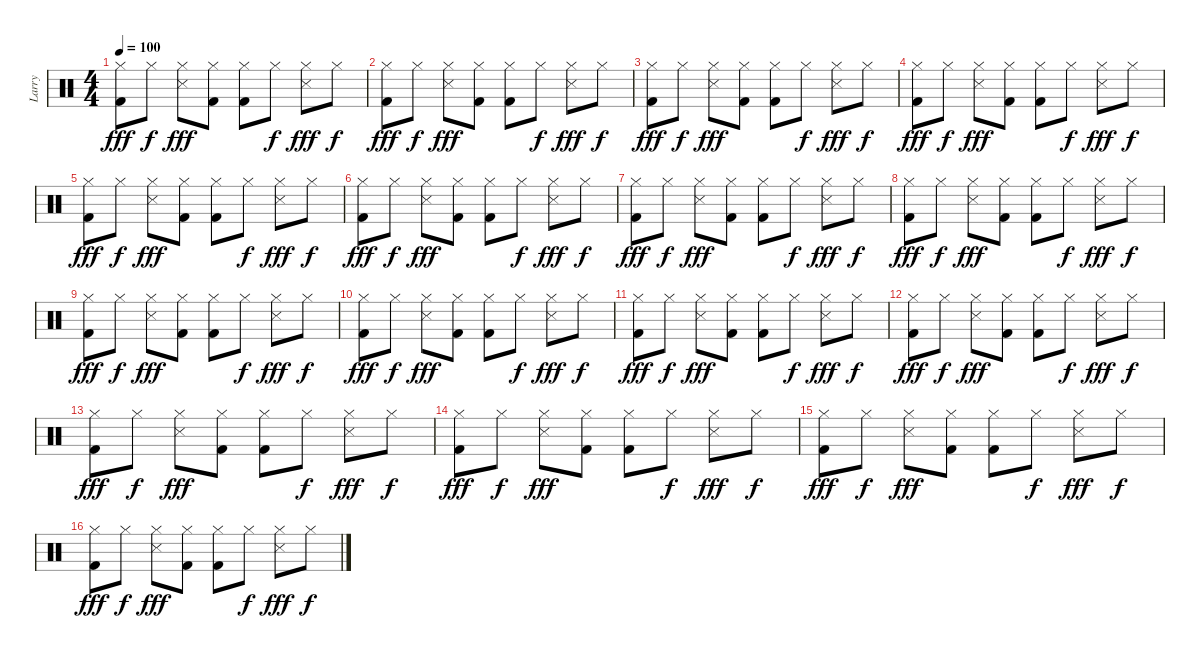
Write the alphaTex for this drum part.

\track ("Larry" "Larry") {instrument percussion}
\staff {score}
\articulation defaults
\ts (4 4)
\tempo 100
\clef neutral
\ks c
("Kick (hit) 2" "Hi-Hat (closed)").8{dy fff} "Hi-Hat (closed)".8{dy f} ("Snare (side stick) 3" "Hi-Hat (closed)").8{dy fff} ("Kick (hit) 2" "Hi-Hat (closed)").8 ("Kick (hit) 2" "Hi-Hat (closed)").8 "Hi-Hat (closed)".8{dy f} ("Snare (side stick) 3" "Hi-Hat (closed)").8{dy fff} "Hi-Hat (closed)".8{dy f} |
("Hi-Hat (closed)" "Kick (hit) 2").8{dy fff} "Hi-Hat (closed)".8{dy f} ("Hi-Hat (closed)" "Snare (side stick) 3").8{dy fff} ("Hi-Hat (closed)" "Kick (hit) 2").8 ("Hi-Hat (closed)" "Kick (hit) 2").8 "Hi-Hat (closed)".8{dy f} ("Hi-Hat (closed)" "Snare (side stick) 3").8{dy fff} "Hi-Hat (closed)".8{dy f} |
("Hi-Hat (closed)" "Kick (hit) 2").8{dy fff} "Hi-Hat (closed)".8{dy f} ("Hi-Hat (closed)" "Snare (side stick) 3").8{dy fff} ("Hi-Hat (closed)" "Kick (hit) 2").8 ("Hi-Hat (closed)" "Kick (hit) 2").8 "Hi-Hat (closed)".8{dy f} ("Hi-Hat (closed)" "Snare (side stick) 3").8{dy fff} "Hi-Hat (closed)".8{dy f} |
("Kick (hit) 2" "Hi-Hat (closed)").8{dy fff} "Hi-Hat (closed)".8{dy f} ("Snare (side stick) 3" "Hi-Hat (closed)").8{dy fff} ("Kick (hit) 2" "Hi-Hat (closed)").8 ("Kick (hit) 2" "Hi-Hat (closed)").8 "Hi-Hat (closed)".8{dy f} ("Snare (side stick) 3" "Hi-Hat (closed)").8{dy fff} "Hi-Hat (closed)".8{dy f} |
("Kick (hit) 2" "Hi-Hat (closed)").8{dy fff} "Hi-Hat (closed)".8{dy f} ("Snare (side stick) 3" "Hi-Hat (closed)").8{dy fff} ("Kick (hit) 2" "Hi-Hat (closed)").8 ("Kick (hit) 2" "Hi-Hat (closed)").8 "Hi-Hat (closed)".8{dy f} ("Snare (side stick) 3" "Hi-Hat (closed)").8{dy fff} "Hi-Hat (closed)".8{dy f} |
("Hi-Hat (closed)" "Kick (hit) 2").8{dy fff} "Hi-Hat (closed)".8{dy f} ("Hi-Hat (closed)" "Snare (side stick) 3").8{dy fff} ("Hi-Hat (closed)" "Kick (hit) 2").8 ("Hi-Hat (closed)" "Kick (hit) 2").8 "Hi-Hat (closed)".8{dy f} ("Hi-Hat (closed)" "Snare (side stick) 3").8{dy fff} "Hi-Hat (closed)".8{dy f} |
("Hi-Hat (closed)" "Kick (hit) 2").8{dy fff} "Hi-Hat (closed)".8{dy f} ("Hi-Hat (closed)" "Snare (side stick) 3").8{dy fff} ("Hi-Hat (closed)" "Kick (hit) 2").8 ("Hi-Hat (closed)" "Kick (hit) 2").8 "Hi-Hat (closed)".8{dy f} ("Hi-Hat (closed)" "Snare (side stick) 3").8{dy fff} "Hi-Hat (closed)".8{dy f} |
("Hi-Hat (closed)" "Kick (hit) 2").8{dy fff} "Hi-Hat (closed)".8{dy f} ("Hi-Hat (closed)" "Snare (side stick) 3").8{dy fff} ("Hi-Hat (closed)" "Kick (hit) 2").8 ("Hi-Hat (closed)" "Kick (hit) 2").8 "Hi-Hat (closed)".8{dy f} ("Hi-Hat (closed)" "Snare (side stick) 3").8{dy fff} "Hi-Hat (closed)".8{dy f} |
("Kick (hit) 2" "Hi-Hat (closed)").8{dy fff} "Hi-Hat (closed)".8{dy f} ("Snare (side stick) 3" "Hi-Hat (closed)").8{dy fff} ("Kick (hit) 2" "Hi-Hat (closed)").8 ("Kick (hit) 2" "Hi-Hat (closed)").8 "Hi-Hat (closed)".8{dy f} ("Snare (side stick) 3" "Hi-Hat (closed)").8{dy fff} "Hi-Hat (closed)".8{dy f} |
("Kick (hit) 2" "Hi-Hat (closed)").8{dy fff} "Hi-Hat (closed)".8{dy f} ("Snare (side stick) 3" "Hi-Hat (closed)").8{dy fff} ("Kick (hit) 2" "Hi-Hat (closed)").8 ("Kick (hit) 2" "Hi-Hat (closed)").8 "Hi-Hat (closed)".8{dy f} ("Snare (side stick) 3" "Hi-Hat (closed)").8{dy fff} "Hi-Hat (closed)".8{dy f} |
("Hi-Hat (closed)" "Kick (hit) 2").8{dy fff} "Hi-Hat (closed)".8{dy f} ("Hi-Hat (closed)" "Snare (side stick) 3").8{dy fff} ("Hi-Hat (closed)" "Kick (hit) 2").8 ("Hi-Hat (closed)" "Kick (hit) 2").8 "Hi-Hat (closed)".8{dy f} ("Hi-Hat (closed)" "Snare (side stick) 3").8{dy fff} "Hi-Hat (closed)".8{dy f} |
("Hi-Hat (closed)" "Kick (hit) 2").8{dy fff} "Hi-Hat (closed)".8{dy f} ("Hi-Hat (closed)" "Snare (side stick) 3").8{dy fff} ("Hi-Hat (closed)" "Kick (hit) 2").8 ("Hi-Hat (closed)" "Kick (hit) 2").8 "Hi-Hat (closed)".8{dy f} ("Hi-Hat (closed)" "Snare (side stick) 3").8{dy fff} "Hi-Hat (closed)".8{dy f} |
("Kick (hit) 2" "Hi-Hat (closed)").8{dy fff} "Hi-Hat (closed)".8{dy f} ("Snare (side stick) 3" "Hi-Hat (closed)").8{dy fff} ("Kick (hit) 2" "Hi-Hat (closed)").8 ("Kick (hit) 2" "Hi-Hat (closed)").8 "Hi-Hat (closed)".8{dy f} ("Snare (side stick) 3" "Hi-Hat (closed)").8{dy fff} "Hi-Hat (closed)".8{dy f} |
("Hi-Hat (closed)" "Kick (hit) 2").8{dy fff} "Hi-Hat (closed)".8{dy f} ("Hi-Hat (closed)" "Snare (side stick) 3").8{dy fff} ("Hi-Hat (closed)" "Kick (hit) 2").8 ("Hi-Hat (closed)" "Kick (hit) 2").8 "Hi-Hat (closed)".8{dy f} ("Hi-Hat (closed)" "Snare (side stick) 3").8{dy fff} "Hi-Hat (closed)".8{dy f} |
("Hi-Hat (closed)" "Kick (hit) 2").8{dy fff} "Hi-Hat (closed)".8{dy f} ("Hi-Hat (closed)" "Snare (side stick) 3").8{dy fff} ("Hi-Hat (closed)" "Kick (hit) 2").8 ("Hi-Hat (closed)" "Kick (hit) 2").8 "Hi-Hat (closed)".8{dy f} ("Hi-Hat (closed)" "Snare (side stick) 3").8{dy fff} "Hi-Hat (closed)".8{dy f} |
("Kick (hit) 2" "Hi-Hat (closed)").8{dy fff} "Hi-Hat (closed)".8{dy f} ("Snare (side stick) 3" "Hi-Hat (closed)").8{dy fff} ("Kick (hit) 2" "Hi-Hat (closed)").8 ("Kick (hit) 2" "Hi-Hat (closed)").8 "Hi-Hat (closed)".8{dy f} ("Snare (side stick) 3" "Hi-Hat (closed)").8{dy fff} "Hi-Hat (closed)".8{dy f}
